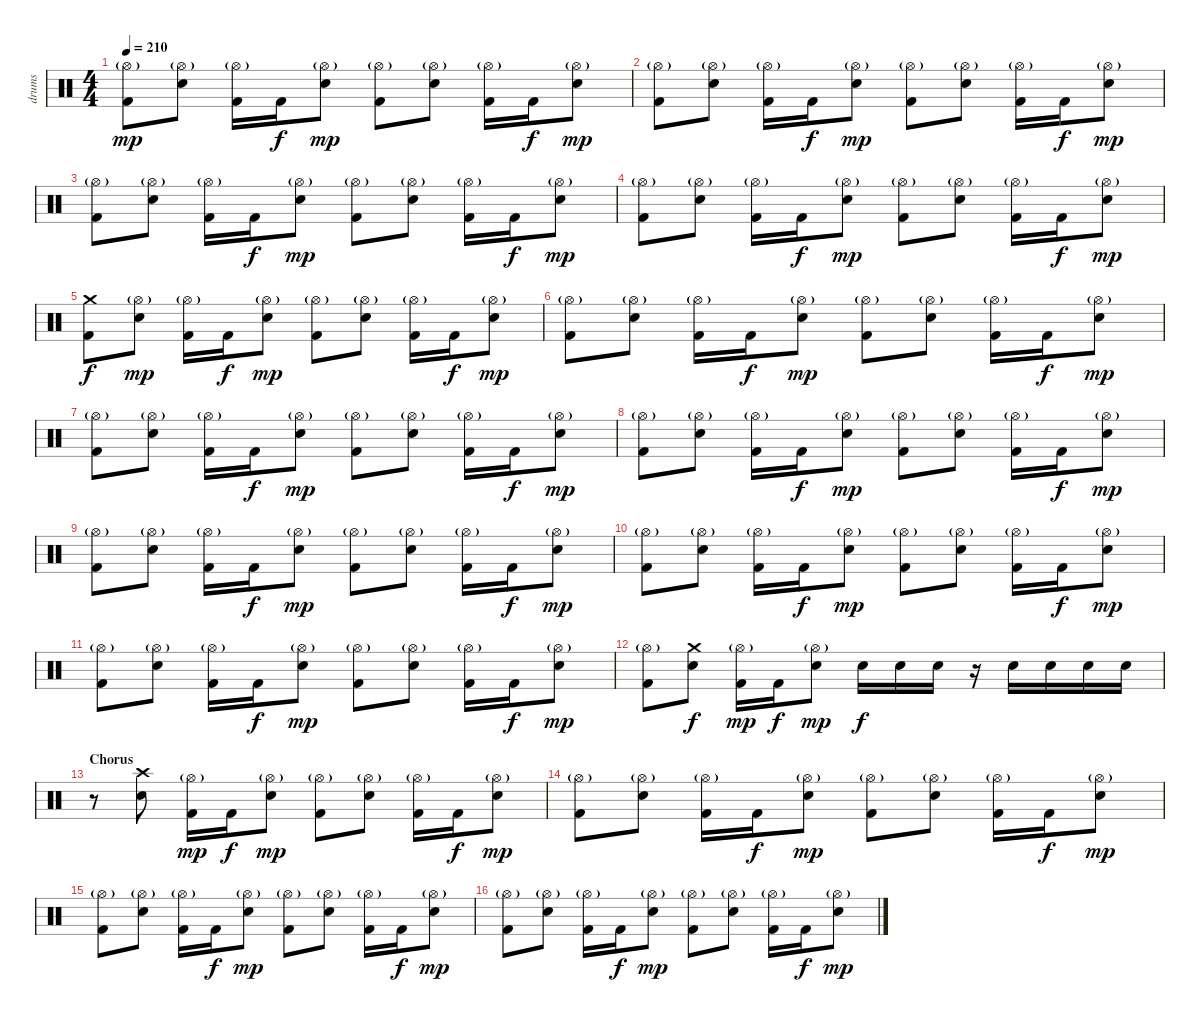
\track ("drums" "drums") {instrument percussion}
\staff {score}
\articulation defaults
\ts (4 4)
\tempo 210
\clef neutral
\ks c
("Hi-Hat (open)"{g} "Kick (hit) 2").8{dy mp} ("Hi-Hat (open)"{g} "Electric Snare (hit)").8 ("Hi-Hat (open)"{g} "Kick (hit) 2").16 "Kick (hit) 2".16{dy f} ("Hi-Hat (open)"{g} "Electric Snare (hit)").8{dy mp} ("Hi-Hat (open)"{g} "Kick (hit) 2").8 ("Hi-Hat (open)"{g} "Electric Snare (hit)").8 ("Hi-Hat (open)"{g} "Kick (hit) 2").16 "Kick (hit) 2".16{dy f} ("Hi-Hat (open)"{g} "Electric Snare (hit)").8{dy mp} |
("Hi-Hat (open)"{g} "Kick (hit) 2").8 ("Hi-Hat (open)"{g} "Electric Snare (hit)").8 ("Hi-Hat (open)"{g} "Kick (hit) 2").16 "Kick (hit) 2".16{dy f} ("Hi-Hat (open)"{g} "Electric Snare (hit)").8{dy mp} ("Hi-Hat (open)"{g} "Kick (hit) 2").8 ("Hi-Hat (open)"{g} "Electric Snare (hit)").8 ("Hi-Hat (open)"{g} "Kick (hit) 2").16 "Kick (hit) 2".16{dy f} ("Hi-Hat (open)"{g} "Electric Snare (hit)").8{dy mp} |
("Hi-Hat (open)"{g} "Kick (hit) 2").8 ("Hi-Hat (open)"{g} "Electric Snare (hit)").8 ("Hi-Hat (open)"{g} "Kick (hit) 2").16 "Kick (hit) 2".16{dy f} ("Hi-Hat (open)"{g} "Electric Snare (hit)").8{dy mp} ("Hi-Hat (open)"{g} "Kick (hit) 2").8 ("Hi-Hat (open)"{g} "Electric Snare (hit)").8 ("Hi-Hat (open)"{g} "Kick (hit) 2").16 "Kick (hit) 2".16{dy f} ("Hi-Hat (open)"{g} "Electric Snare (hit)").8{dy mp} |
("Hi-Hat (open)"{g} "Kick (hit) 2").8 ("Hi-Hat (open)"{g} "Electric Snare (hit)").8 ("Hi-Hat (open)"{g} "Kick (hit) 2").16 "Kick (hit) 2".16{dy f} ("Hi-Hat (open)"{g} "Electric Snare (hit)").8{dy mp} ("Hi-Hat (open)"{g} "Kick (hit) 2").8 ("Hi-Hat (open)"{g} "Electric Snare (hit)").8 ("Hi-Hat (open)"{g} "Kick (hit) 2").16 "Kick (hit) 2".16{dy f} ("Hi-Hat (open)"{g} "Electric Snare (hit)").8{dy mp} |
\section ("" "")
("Crash medium (hit)" "Kick (hit) 2").8{dy f} ("Hi-Hat (open)"{g} "Electric Snare (hit)").8{dy mp} ("Hi-Hat (open)"{g} "Kick (hit) 2").16 "Kick (hit) 2".16{dy f} ("Hi-Hat (open)"{g} "Electric Snare (hit)").8{dy mp} ("Hi-Hat (open)"{g} "Kick (hit) 2").8 ("Hi-Hat (open)"{g} "Electric Snare (hit)").8 ("Hi-Hat (open)"{g} "Kick (hit) 2").16 "Kick (hit) 2".16{dy f} ("Hi-Hat (open)"{g} "Electric Snare (hit)").8{dy mp} |
("Hi-Hat (open)"{g} "Kick (hit) 2").8 ("Hi-Hat (open)"{g} "Electric Snare (hit)").8 ("Hi-Hat (open)"{g} "Kick (hit) 2").16 "Kick (hit) 2".16{dy f} ("Hi-Hat (open)"{g} "Electric Snare (hit)").8{dy mp} ("Hi-Hat (open)"{g} "Kick (hit) 2").8 ("Hi-Hat (open)"{g} "Electric Snare (hit)").8 ("Hi-Hat (open)"{g} "Kick (hit) 2").16 "Kick (hit) 2".16{dy f} ("Hi-Hat (open)"{g} "Electric Snare (hit)").8{dy mp} |
("Hi-Hat (open)"{g} "Kick (hit) 2").8 ("Hi-Hat (open)"{g} "Electric Snare (hit)").8 ("Hi-Hat (open)"{g} "Kick (hit) 2").16 "Kick (hit) 2".16{dy f} ("Hi-Hat (open)"{g} "Electric Snare (hit)").8{dy mp} ("Hi-Hat (open)"{g} "Kick (hit) 2").8 ("Hi-Hat (open)"{g} "Electric Snare (hit)").8 ("Hi-Hat (open)"{g} "Kick (hit) 2").16 "Kick (hit) 2".16{dy f} ("Hi-Hat (open)"{g} "Electric Snare (hit)").8{dy mp} |
("Hi-Hat (open)"{g} "Kick (hit) 2").8 ("Hi-Hat (open)"{g} "Electric Snare (hit)").8 ("Hi-Hat (open)"{g} "Kick (hit) 2").16 "Kick (hit) 2".16{dy f} ("Hi-Hat (open)"{g} "Electric Snare (hit)").8{dy mp} ("Hi-Hat (open)"{g} "Kick (hit) 2").8 ("Hi-Hat (open)"{g} "Electric Snare (hit)").8 ("Hi-Hat (open)"{g} "Kick (hit) 2").16 "Kick (hit) 2".16{dy f} ("Hi-Hat (open)"{g} "Electric Snare (hit)").8{dy mp} |
("Hi-Hat (open)"{g} "Kick (hit) 2").8 ("Hi-Hat (open)"{g} "Electric Snare (hit)").8 ("Hi-Hat (open)"{g} "Kick (hit) 2").16 "Kick (hit) 2".16{dy f} ("Hi-Hat (open)"{g} "Electric Snare (hit)").8{dy mp} ("Hi-Hat (open)"{g} "Kick (hit) 2").8 ("Hi-Hat (open)"{g} "Electric Snare (hit)").8 ("Hi-Hat (open)"{g} "Kick (hit) 2").16 "Kick (hit) 2".16{dy f} ("Hi-Hat (open)"{g} "Electric Snare (hit)").8{dy mp} |
("Hi-Hat (open)"{g} "Kick (hit) 2").8 ("Hi-Hat (open)"{g} "Electric Snare (hit)").8 ("Hi-Hat (open)"{g} "Kick (hit) 2").16 "Kick (hit) 2".16{dy f} ("Hi-Hat (open)"{g} "Electric Snare (hit)").8{dy mp} ("Hi-Hat (open)"{g} "Kick (hit) 2").8 ("Hi-Hat (open)"{g} "Electric Snare (hit)").8 ("Hi-Hat (open)"{g} "Kick (hit) 2").16 "Kick (hit) 2".16{dy f} ("Hi-Hat (open)"{g} "Electric Snare (hit)").8{dy mp} |
("Hi-Hat (open)"{g} "Kick (hit) 2").8 ("Hi-Hat (open)"{g} "Electric Snare (hit)").8 ("Hi-Hat (open)"{g} "Kick (hit) 2").16 "Kick (hit) 2".16{dy f} ("Hi-Hat (open)"{g} "Electric Snare (hit)").8{dy mp} ("Hi-Hat (open)"{g} "Kick (hit) 2").8 ("Hi-Hat (open)"{g} "Electric Snare (hit)").8 ("Hi-Hat (open)"{g} "Kick (hit) 2").16 "Kick (hit) 2".16{dy f} ("Hi-Hat (open)"{g} "Electric Snare (hit)").8{dy mp} |
("Hi-Hat (open)"{g} "Kick (hit) 2").8 ("Crash medium (hit)" "Electric Snare (hit)").8{dy f} ("Hi-Hat (open)"{g} "Kick (hit) 2").16{dy mp} "Kick (hit) 2".16{dy f} ("Hi-Hat (open)"{g} "Electric Snare (hit)").8{dy mp} "Electric Snare (hit)".16{dy f} "Electric Snare (hit)".16 "Electric Snare (hit)".16 r.16 "Electric Snare (hit)".16 "Electric Snare (hit)".16 "Electric Snare (hit)".16 "Electric Snare (hit)".16 |
\section ("" "Chorus")
r.8 ("Crash high (hit)" "Electric Snare (hit)").8 ("Hi-Hat (open)"{g} "Kick (hit) 2").16{dy mp} "Kick (hit) 2".16{dy f} ("Hi-Hat (open)"{g} "Electric Snare (hit)").8{dy mp} ("Hi-Hat (open)"{g} "Kick (hit) 2").8 ("Hi-Hat (open)"{g} "Electric Snare (hit)").8 ("Hi-Hat (open)"{g} "Kick (hit) 2").16 "Kick (hit) 2".16{dy f} ("Hi-Hat (open)"{g} "Electric Snare (hit)").8{dy mp} |
("Hi-Hat (open)"{g} "Kick (hit) 2").8 ("Hi-Hat (open)"{g} "Electric Snare (hit)").8 ("Hi-Hat (open)"{g} "Kick (hit) 2").16 "Kick (hit) 2".16{dy f} ("Hi-Hat (open)"{g} "Electric Snare (hit)").8{dy mp} ("Hi-Hat (open)"{g} "Kick (hit) 2").8 ("Hi-Hat (open)"{g} "Electric Snare (hit)").8 ("Hi-Hat (open)"{g} "Kick (hit) 2").16 "Kick (hit) 2".16{dy f} ("Hi-Hat (open)"{g} "Electric Snare (hit)").8{dy mp} |
("Hi-Hat (open)"{g} "Kick (hit) 2").8 ("Hi-Hat (open)"{g} "Electric Snare (hit)").8 ("Hi-Hat (open)"{g} "Kick (hit) 2").16 "Kick (hit) 2".16{dy f} ("Hi-Hat (open)"{g} "Electric Snare (hit)").8{dy mp} ("Hi-Hat (open)"{g} "Kick (hit) 2").8 ("Hi-Hat (open)"{g} "Electric Snare (hit)").8 ("Hi-Hat (open)"{g} "Kick (hit) 2").16 "Kick (hit) 2".16{dy f} ("Hi-Hat (open)"{g} "Electric Snare (hit)").8{dy mp} |
("Hi-Hat (open)"{g} "Kick (hit) 2").8 ("Hi-Hat (open)"{g} "Electric Snare (hit)").8 ("Hi-Hat (open)"{g} "Kick (hit) 2").16 "Kick (hit) 2".16{dy f} ("Hi-Hat (open)"{g} "Electric Snare (hit)").8{dy mp} ("Hi-Hat (open)"{g} "Kick (hit) 2").8 ("Hi-Hat (open)"{g} "Electric Snare (hit)").8 ("Hi-Hat (open)"{g} "Kick (hit) 2").16 "Kick (hit) 2".16{dy f} ("Hi-Hat (open)"{g} "Electric Snare (hit)").8{dy mp}
